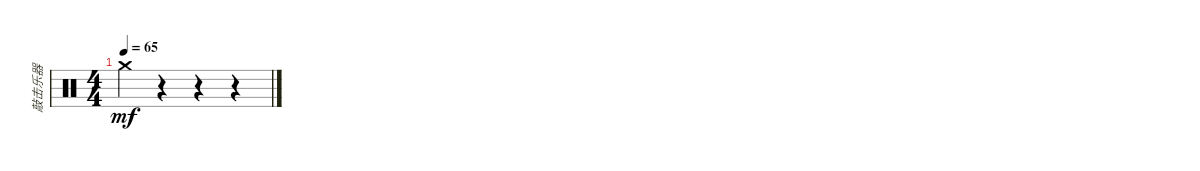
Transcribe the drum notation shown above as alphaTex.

\track ("敲击乐器" "敲击乐器") {instrument percussion}
\staff {score}
\articulation defaults
\ts (4 4)
\tempo 65
\clef neutral
\ks c "Crash medium (hit)".4{dy mf}
r.4 r.4 r.4
